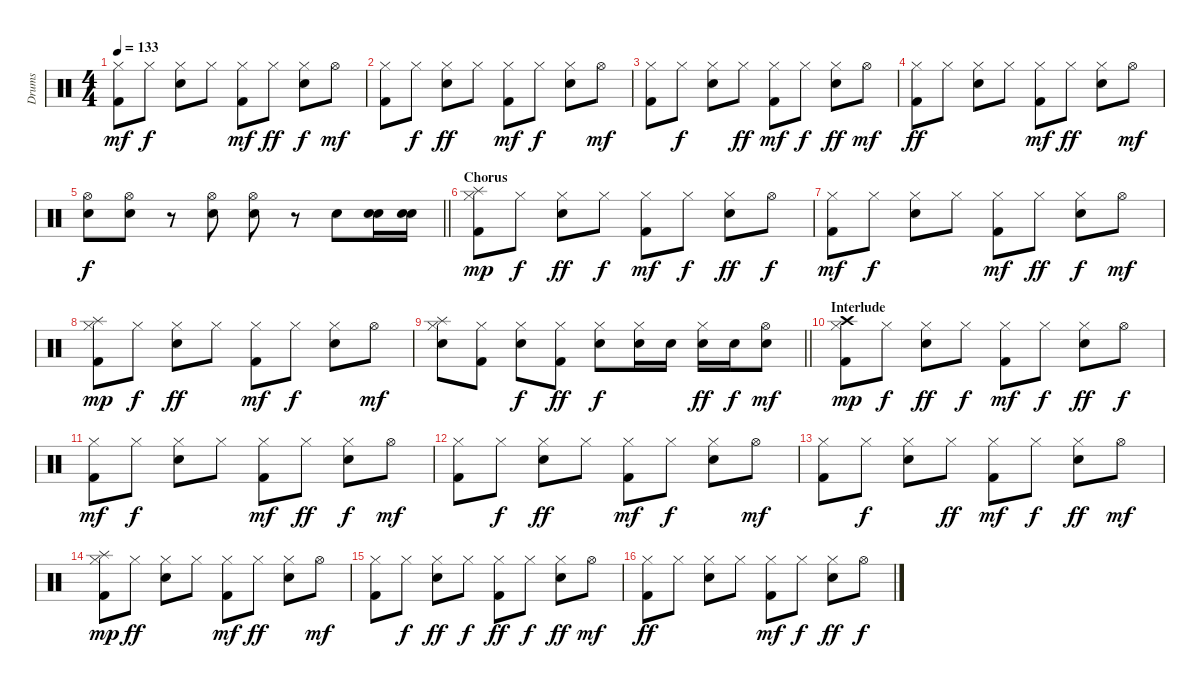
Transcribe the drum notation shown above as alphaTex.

\track ("Drums   " "Drums   ") {instrument percussion}
\staff {score}
\articulation defaults
\ts (4 4)
\tempo 133
\clef neutral
\ks c
("Kick (hit) 2" "Hi-Hat (closed)").8{dy mf} "Hi-Hat (closed)".8{dy f} ("Electric Snare (hit)" "Hi-Hat (closed)").8 "Hi-Hat (closed)".8 ("Kick (hit) 2" "Hi-Hat (closed)").8{dy mf} "Hi-Hat (closed)".8{dy ff} ("Electric Snare (hit)" "Hi-Hat (closed)").8{dy f} "Hi-Hat (open)".8{dy mf} |
("Kick (hit) 2" "Hi-Hat (closed)").8 "Hi-Hat (closed)".8{dy f} ("Electric Snare (hit)" "Hi-Hat (closed)").8{dy ff} "Hi-Hat (closed)".8 ("Kick (hit) 2" "Hi-Hat (closed)").8{dy mf} "Hi-Hat (closed)".8{dy f} ("Electric Snare (hit)" "Hi-Hat (closed)").8 "Hi-Hat (open)".8{dy mf} |
("Kick (hit) 2" "Hi-Hat (closed)").8 "Hi-Hat (closed)".8{dy f} ("Electric Snare (hit)" "Hi-Hat (closed)").8 "Hi-Hat (closed)".8{dy ff} ("Kick (hit) 2" "Hi-Hat (closed)").8{dy mf} "Hi-Hat (closed)".8{dy f} ("Electric Snare (hit)" "Hi-Hat (closed)").8{dy ff} "Hi-Hat (open)".8{dy mf} |
("Kick (hit) 2" "Hi-Hat (closed)").8{dy ff} "Hi-Hat (closed)".8 ("Electric Snare (hit)" "Hi-Hat (closed)").8 "Hi-Hat (closed)".8 ("Kick (hit) 2" "Hi-Hat (closed)").8{dy mf} "Hi-Hat (closed)".8{dy ff} ("Electric Snare (hit)" "Hi-Hat (closed)").8 "Hi-Hat (open)".8{dy mf} |
\barLineRight lightlight
("Electric Snare (hit)" "Hi-Hat (open)").8{dy f} ("Electric Snare (hit)" "Hi-Hat (open)").8 r.8 ("Electric Snare (hit)" "Hi-Hat (open)").8 ("Electric Snare (hit)" "Hi-Hat (open)").8 r.8 "Electric Snare (hit)".8 ("Electric Snare (hit)" "Electric Snare (hit)").16 ("Electric Snare (hit)" "Electric Snare (hit)").16 |
\section ("" "Chorus")
("Kick (hit) 2" "Hi-Hat (closed)" "Splash (hit)").8{dy mp} "Hi-Hat (closed)".8{dy f} ("Electric Snare (hit)" "Hi-Hat (closed)").8{dy ff} "Hi-Hat (closed)".8{dy f} ("Kick (hit) 2" "Hi-Hat (closed)").8{dy mf} "Hi-Hat (closed)".8{dy f} ("Electric Snare (hit)" "Hi-Hat (closed)").8{dy ff} "Hi-Hat (open)".8{dy f} |
("Kick (hit) 2" "Hi-Hat (closed)").8{dy mf} "Hi-Hat (closed)".8{dy f} ("Electric Snare (hit)" "Hi-Hat (closed)").8 "Hi-Hat (closed)".8 ("Kick (hit) 2" "Hi-Hat (closed)").8{dy mf} "Hi-Hat (closed)".8{dy ff} ("Electric Snare (hit)" "Hi-Hat (closed)").8{dy f} "Hi-Hat (open)".8{dy mf} |
("Kick (hit) 2" "Hi-Hat (closed)" "Splash (hit)").8{dy mp} "Hi-Hat (closed)".8{dy f} ("Electric Snare (hit)" "Hi-Hat (closed)").8{dy ff} "Hi-Hat (closed)".8 ("Kick (hit) 2" "Hi-Hat (closed)").8{dy mf} "Hi-Hat (closed)".8{dy f} ("Electric Snare (hit)" "Hi-Hat (closed)").8 "Hi-Hat (open)".8{dy mf} |
\barLineRight lightlight
("Electric Snare (hit)" "Hi-Hat (closed)" "Splash (hit)").8 ("Kick (hit) 2" "Hi-Hat (closed)").8 ("Electric Snare (hit)" "Hi-Hat (closed)").8{dy f} ("Kick (hit) 2" "Hi-Hat (closed)").8{dy ff} ("Electric Snare (hit)" "Hi-Hat (closed)").8{dy f} ("Electric Snare (hit)" "Hi-Hat (closed)").16 "Electric Snare (hit)".16 ("Electric Snare (hit)" "Hi-Hat (closed)").16{dy ff} "Electric Snare (hit)".16{dy f} ("Electric Snare (hit)" "Hi-Hat (open)").8{dy mf} |
\section ("" "Interlude")
("Kick (hit) 2" "Hi-Hat (closed)" "Crash high (hit)").8{dy mp} "Hi-Hat (closed)".8{dy f} ("Electric Snare (hit)" "Hi-Hat (closed)").8{dy ff} "Hi-Hat (closed)".8{dy f} ("Kick (hit) 2" "Hi-Hat (closed)").8{dy mf} "Hi-Hat (closed)".8{dy f} ("Electric Snare (hit)" "Hi-Hat (closed)").8{dy ff} "Hi-Hat (open)".8{dy f} |
("Kick (hit) 2" "Hi-Hat (closed)").8{dy mf} "Hi-Hat (closed)".8{dy f} ("Electric Snare (hit)" "Hi-Hat (closed)").8 "Hi-Hat (closed)".8 ("Kick (hit) 2" "Hi-Hat (closed)").8{dy mf} "Hi-Hat (closed)".8{dy ff} ("Electric Snare (hit)" "Hi-Hat (closed)").8{dy f} "Hi-Hat (open)".8{dy mf} |
("Kick (hit) 2" "Hi-Hat (closed)").8 "Hi-Hat (closed)".8{dy f} ("Electric Snare (hit)" "Hi-Hat (closed)").8{dy ff} "Hi-Hat (closed)".8 ("Kick (hit) 2" "Hi-Hat (closed)").8{dy mf} "Hi-Hat (closed)".8{dy f} ("Electric Snare (hit)" "Hi-Hat (closed)").8 "Hi-Hat (open)".8{dy mf} |
("Kick (hit) 2" "Hi-Hat (closed)").8 "Hi-Hat (closed)".8{dy f} ("Electric Snare (hit)" "Hi-Hat (closed)").8 "Hi-Hat (closed)".8{dy ff} ("Kick (hit) 2" "Hi-Hat (closed)").8{dy mf} "Hi-Hat (closed)".8{dy f} ("Electric Snare (hit)" "Hi-Hat (closed)").8{dy ff} "Hi-Hat (open)".8{dy mf} |
("Kick (hit) 2" "Hi-Hat (closed)" "Splash (hit)").8{dy mp} "Hi-Hat (closed)".8{dy ff} ("Electric Snare (hit)" "Hi-Hat (closed)").8 "Hi-Hat (closed)".8 ("Kick (hit) 2" "Hi-Hat (closed)").8{dy mf} "Hi-Hat (closed)".8{dy ff} ("Electric Snare (hit)" "Hi-Hat (closed)").8 "Hi-Hat (open)".8{dy mf} |
("Kick (hit) 2" "Hi-Hat (closed)").8 "Hi-Hat (closed)".8{dy f} ("Electric Snare (hit)" "Hi-Hat (closed)").8{dy ff} "Hi-Hat (closed)".8{dy f} ("Kick (hit) 2" "Hi-Hat (closed)").8{dy ff} "Hi-Hat (closed)".8{dy f} ("Electric Snare (hit)" "Hi-Hat (closed)").8{dy ff} "Hi-Hat (open)".8{dy mf} |
("Kick (hit) 2" "Hi-Hat (closed)").8{dy ff} "Hi-Hat (closed)".8 ("Electric Snare (hit)" "Hi-Hat (closed)").8 "Hi-Hat (closed)".8 ("Kick (hit) 2" "Hi-Hat (closed)").8{dy mf} "Hi-Hat (closed)".8{dy f} ("Electric Snare (hit)" "Hi-Hat (closed)").8{dy ff} "Hi-Hat (open)".8{dy f}
